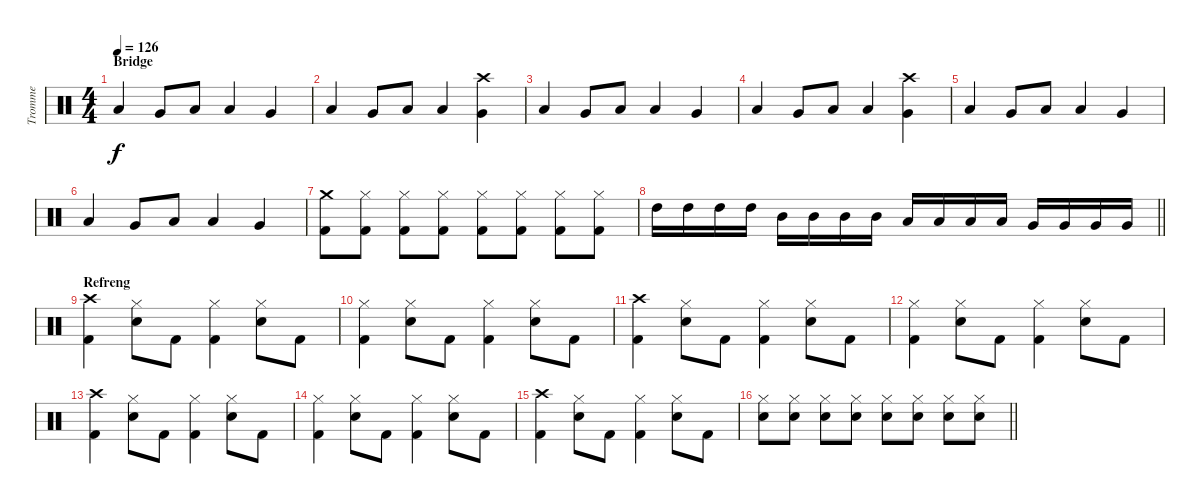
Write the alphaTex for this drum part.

\track ("Tromme" "Tromme") {instrument percussion}
\staff {score}
\articulation defaults
\ts (4 4)
\section ("" "Bridge")
\tempo 126
\clef neutral
\ks c "Low Floor Tom (hit)".4{dy f} "Very Low Tom (hit)".8 "Low Floor Tom (hit)".8 "Low Floor Tom (hit)".4 "Very Low Tom (hit)".4
|
"Low Floor Tom (hit)".4 "Very Low Tom (hit)".8 "Low Floor Tom (hit)".8 "Low Floor Tom (hit)".4 ("Crash high (hit)" "Very Low Tom (hit)").4 |
"Low Floor Tom (hit)".4 "Very Low Tom (hit)".8 "Low Floor Tom (hit)".8 "Low Floor Tom (hit)".4 "Very Low Tom (hit)".4 |
"Low Floor Tom (hit)".4 "Very Low Tom (hit)".8 "Low Floor Tom (hit)".8 "Low Floor Tom (hit)".4 ("Crash high (hit)" "Very Low Tom (hit)").4 |
"Low Floor Tom (hit)".4 "Very Low Tom (hit)".8 "Low Floor Tom (hit)".8 "Low Floor Tom (hit)".4 "Very Low Tom (hit)".4 |
"Low Floor Tom (hit)".4 "Very Low Tom (hit)".8 "Low Floor Tom (hit)".8 "Low Floor Tom (hit)".4 "Very Low Tom (hit)".4 |
("Crash medium (hit)" "Kick (hit) 2").8 ("Hi-Hat (closed)" "Kick (hit) 2").8 ("Hi-Hat (closed)" "Kick (hit) 2").8 ("Hi-Hat (closed)" "Kick (hit) 2").8 ("Hi-Hat (closed)" "Kick (hit) 2").8 ("Hi-Hat (closed)" "Kick (hit) 2").8 ("Hi-Hat (closed)" "Kick (hit) 2").8 ("Hi-Hat (closed)" "Kick (hit) 2").8 |
\barLineRight lightlight "High Tom (hit)".16 "High Tom (hit)".16 "High Tom (hit)".16 "High Tom (hit)".16 "Mid Tom (hit)".16 "Mid Tom (hit)".16 "Mid Tom (hit)".16 "Mid Tom (hit)".16 "Low Tom (hit)".16 "Low Tom (hit)".16 "Low Tom (hit)".16 "Low Tom (hit)".16 "Very Low Tom (hit)".16 "Very Low Tom (hit)".16 "Very Low Tom (hit)".16 "Very Low Tom (hit)".16
|
\section ("" "Refreng")
("Crash high (hit)" "Kick (hit) 2").4 ("Hi-Hat (closed)" "Snare (hit) 2").8 "Kick (hit) 2".8 ("Hi-Hat (closed)" "Kick (hit) 2").4 ("Hi-Hat (closed)" "Snare (hit) 2").8 "Kick (hit) 2".8 |
("Hi-Hat (closed)" "Kick (hit) 2").4 ("Hi-Hat (closed)" "Snare (hit) 2").8 "Kick (hit) 2".8 ("Hi-Hat (closed)" "Kick (hit) 2").4 ("Hi-Hat (closed)" "Snare (hit) 2").8 "Kick (hit) 2".8 |
("Crash high (hit)" "Kick (hit) 2").4 ("Hi-Hat (closed)" "Snare (hit) 2").8 "Kick (hit) 2".8 ("Hi-Hat (closed)" "Kick (hit) 2").4 ("Hi-Hat (closed)" "Snare (hit) 2").8 "Kick (hit) 2".8 |
("Hi-Hat (closed)" "Kick (hit) 2").4 ("Hi-Hat (closed)" "Snare (hit) 2").8 "Kick (hit) 2".8 ("Hi-Hat (closed)" "Kick (hit) 2").4 ("Hi-Hat (closed)" "Snare (hit) 2").8 "Kick (hit) 2".8 |
("Crash high (hit)" "Kick (hit) 2").4 ("Hi-Hat (closed)" "Snare (hit) 2").8 "Kick (hit) 2".8 ("Hi-Hat (closed)" "Kick (hit) 2").4 ("Hi-Hat (closed)" "Snare (hit) 2").8 "Kick (hit) 2".8 |
("Hi-Hat (closed)" "Kick (hit) 2").4 ("Hi-Hat (closed)" "Snare (hit) 2").8 "Kick (hit) 2".8 ("Hi-Hat (closed)" "Kick (hit) 2").4 ("Hi-Hat (closed)" "Snare (hit) 2").8 "Kick (hit) 2".8 |
("Crash high (hit)" "Kick (hit) 2").4 ("Hi-Hat (closed)" "Snare (hit) 2").8 "Kick (hit) 2".8 ("Hi-Hat (closed)" "Kick (hit) 2").4 ("Hi-Hat (closed)" "Snare (hit) 2").8 "Kick (hit) 2".8 |
\barLineRight lightlight
("Hi-Hat (closed)" "Snare (hit) 2").8 ("Hi-Hat (closed)" "Snare (hit) 2").8 ("Hi-Hat (closed)" "Snare (hit) 2").8 ("Hi-Hat (closed)" "Snare (hit) 2").8 ("Hi-Hat (closed)" "Snare (hit) 2").8 ("Hi-Hat (closed)" "Snare (hit) 2").8 ("Hi-Hat (closed)" "Snare (hit) 2").8 ("Hi-Hat (closed)" "Snare (hit) 2").8
